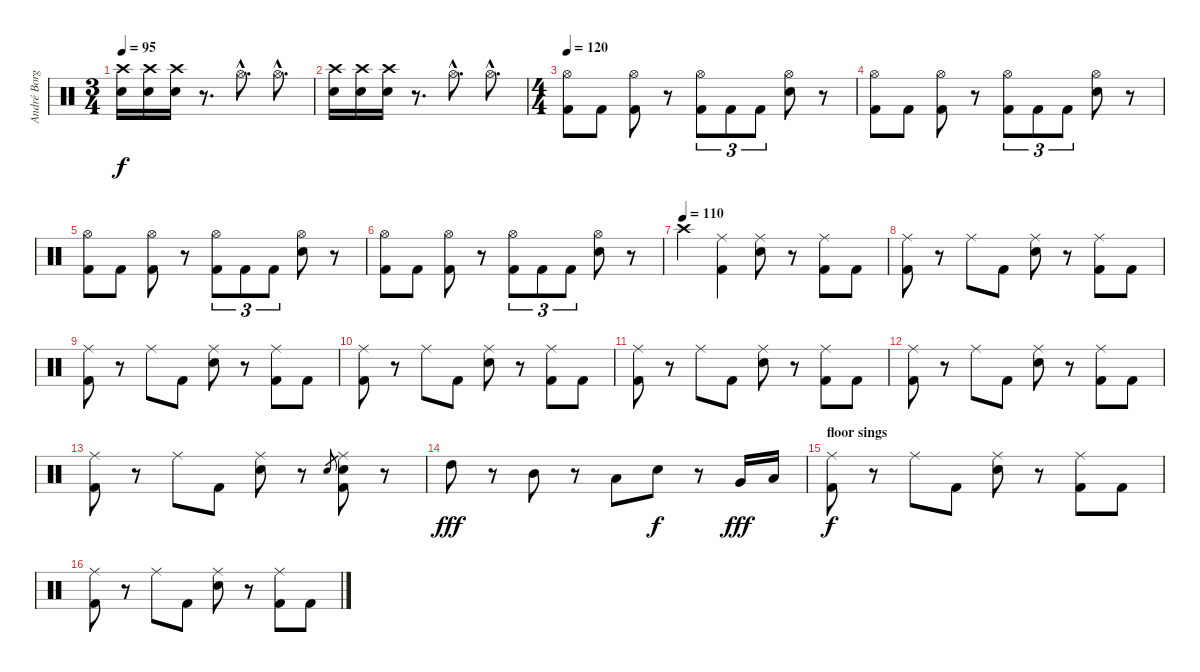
\track ("André Borgman" "André Borg") {instrument percussion}
\staff {score}
\articulation defaults
\ts (3 4)
\tempo 95
\clef neutral
\ks c
("Crash high (hit)" "Electric Snare (hit)").16{dy f} ("Crash high (hit)" "Electric Snare (hit)").16 ("Crash high (hit)" "Electric Snare (hit)").16 r.8{d} "Hi-Hat (open)"{hac}.8{d} "Hi-Hat (open)"{hac}.8{d} |
("Crash high (hit)" "Electric Snare (hit)").16 ("Crash high (hit)" "Electric Snare (hit)").16 ("Crash high (hit)" "Electric Snare (hit)").16 r.8{d} "Hi-Hat (open)"{hac}.8{d} "Hi-Hat (open)"{hac}.8{d} |
\ts (4 4)
\tempo 120
("Hi-Hat (open)" "Kick (hit) 2").8 "Kick (hit) 2".8 ("Hi-Hat (open)" "Kick (hit) 2").8 r.8 ("Hi-Hat (open)" "Kick (hit) 2").8{tu (3 2)} "Kick (hit) 2".8{tu (3 2)} "Kick (hit) 2".8{tu (3 2)} ("Hi-Hat (open)" "Electric Snare (hit)").8 r.8 |
("Hi-Hat (open)" "Kick (hit) 2").8 "Kick (hit) 2".8 ("Hi-Hat (open)" "Kick (hit) 2").8 r.8 ("Hi-Hat (open)" "Kick (hit) 2").8{tu (3 2)} "Kick (hit) 2".8{tu (3 2)} "Kick (hit) 2".8{tu (3 2)} ("Hi-Hat (open)" "Electric Snare (hit)").8 r.8 |
("Hi-Hat (open)" "Kick (hit) 2").8 "Kick (hit) 2".8 ("Hi-Hat (open)" "Kick (hit) 2").8 r.8 ("Hi-Hat (open)" "Kick (hit) 2").8{tu (3 2)} "Kick (hit) 2".8{tu (3 2)} "Kick (hit) 2".8{tu (3 2)} ("Hi-Hat (open)" "Electric Snare (hit)").8 r.8 |
("Hi-Hat (open)" "Kick (hit) 2").8 "Kick (hit) 2".8 ("Hi-Hat (open)" "Kick (hit) 2").8 r.8 ("Hi-Hat (open)" "Kick (hit) 2").8{tu (3 2)} "Kick (hit) 2".8{tu (3 2)} "Kick (hit) 2".8{tu (3 2)} ("Hi-Hat (open)" "Electric Snare (hit)").8 r.8 |
\tempo (110)
"Crash high (hit)".4 ("Ride (middle)" "Kick (hit) 2").4 ("Ride (middle)" "Electric Snare (hit)").8 r.8 ("Ride (middle)" "Kick (hit) 2").8 "Kick (hit) 2".8 |
("Ride (middle)" "Kick (hit) 2").8 r.8 "Ride (middle)".8 "Kick (hit) 2".8 ("Ride (middle)" "Electric Snare (hit)").8 r.8 ("Ride (middle)" "Kick (hit) 2").8 "Kick (hit) 2".8 |
("Ride (middle)" "Kick (hit) 2").8 r.8 "Ride (middle)".8 "Kick (hit) 2".8 ("Ride (middle)" "Electric Snare (hit)").8 r.8 ("Ride (middle)" "Kick (hit) 2").8 "Kick (hit) 2".8 |
("Ride (middle)" "Kick (hit) 2").8 r.8 "Ride (middle)".8 "Kick (hit) 2".8 ("Ride (middle)" "Electric Snare (hit)").8 r.8 ("Ride (middle)" "Kick (hit) 2").8 "Kick (hit) 2".8 |
("Ride (middle)" "Kick (hit) 2").8 r.8 "Ride (middle)".8 "Kick (hit) 2".8 ("Ride (middle)" "Electric Snare (hit)").8 r.8 ("Ride (middle)" "Kick (hit) 2").8 "Kick (hit) 2".8 |
("Ride (middle)" "Kick (hit) 2").8 r.8 "Ride (middle)".8 "Kick (hit) 2".8 ("Ride (middle)" "Electric Snare (hit)").8 r.8 ("Ride (middle)" "Kick (hit) 2").8 "Kick (hit) 2".8 |
("Ride (middle)" "Kick (hit) 2").8 r.8 "Ride (middle)".8 "Kick (hit) 2".8 ("Ride (middle)" "Electric Snare (hit)").8 r.8 "Electric Snare (hit)"{h}.8{gr} ("Ride (middle)" "Electric Snare (hit)" "Kick (hit) 2").8 r.8 |
"High Tom (hit)".8{dy fff} r.8 "Mid Tom (hit)".8 r.8 "Low Tom (hit)".8 "Electric Snare (hit)".8{dy f} r.8 "Very Low Tom (hit)".16{dy fff} "Low Floor Tom (hit)".16 |
\section ("" "floor sings")
("Ride (middle)" "Kick (hit) 2").8{dy f} r.8 "Ride (middle)".8 "Kick (hit) 2".8 ("Ride (middle)" "Electric Snare (hit)").8 r.8 ("Ride (middle)" "Kick (hit) 2").8 "Kick (hit) 2".8 |
("Ride (middle)" "Kick (hit) 2").8 r.8 "Ride (middle)".8 "Kick (hit) 2".8 ("Ride (middle)" "Electric Snare (hit)").8 r.8 ("Ride (middle)" "Kick (hit) 2").8 "Kick (hit) 2".8
